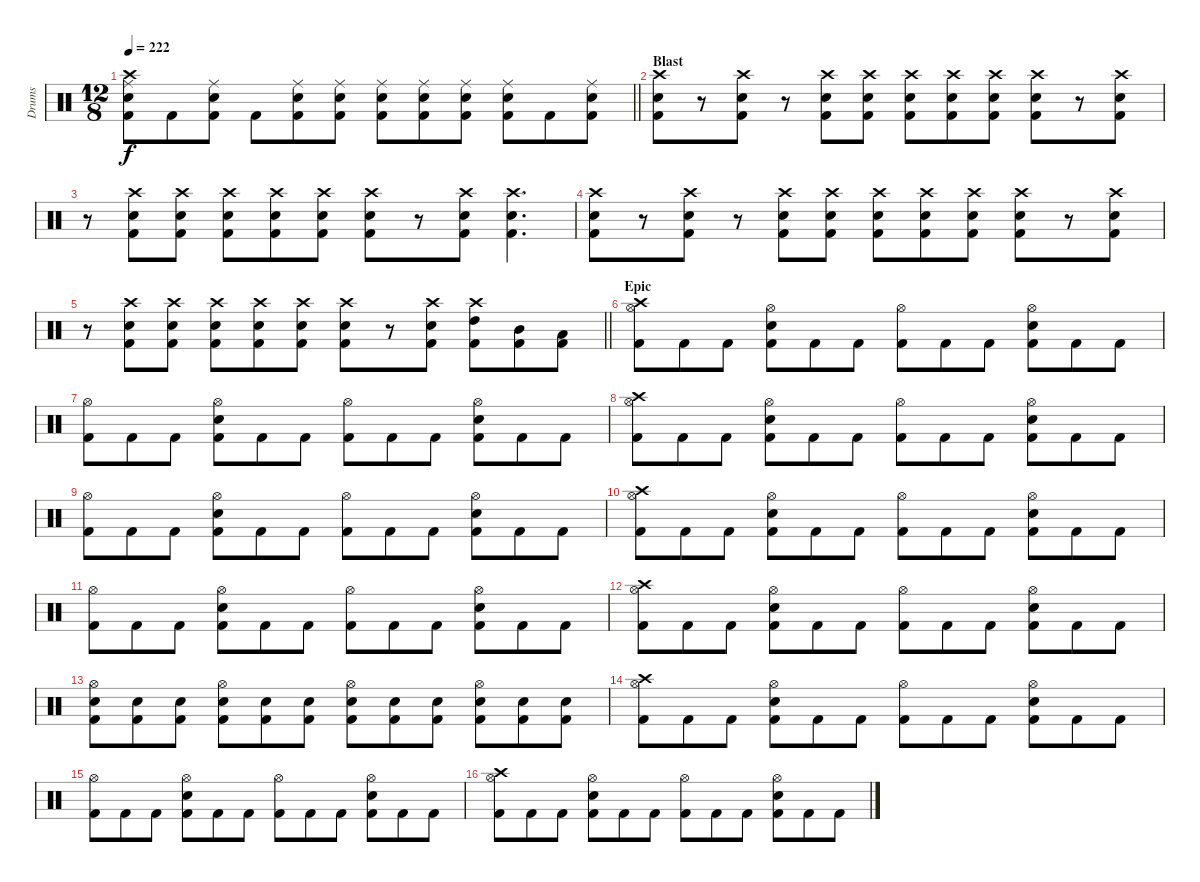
\track ("Drums" "Drums") {instrument percussion}
\staff {score}
\articulation defaults
\ts (12 8)
\tempo 222
\clef neutral
\barLineRight lightlight
\ks c
("Crash high (hit)" "Ride (middle)" "Snare (hit) 2" "Kick (hit) 2").8{dy f} "Kick (hit) 2".8 ("Ride (middle)" "Snare (hit) 2" "Kick (hit) 2").8 "Kick (hit) 2".8 ("Ride (middle)" "Snare (hit) 2" "Kick (hit) 2").8 ("Ride (middle)" "Snare (hit) 2" "Kick (hit) 2").8 ("Ride (middle)" "Snare (hit) 2" "Kick (hit) 2").8 ("Ride (middle)" "Snare (hit) 2" "Kick (hit) 2").8 ("Ride (middle)" "Snare (hit) 2" "Kick (hit) 2").8 ("Ride (middle)" "Snare (hit) 2" "Kick (hit) 2").8 "Kick (hit) 2".8 ("Ride (middle)" "Snare (hit) 2" "Kick (hit) 2").8 |
\section ("" "Blast")
("Crash high (hit)" "Snare (hit) 2" "Kick (hit) 2").8 r.8 ("Crash high (hit)" "Snare (hit) 2" "Kick (hit) 2").8 r.8 ("Crash high (hit)" "Snare (hit) 2" "Kick (hit) 2").8 ("Crash high (hit)" "Snare (hit) 2" "Kick (hit) 2").8 ("Crash high (hit)" "Snare (hit) 2" "Kick (hit) 2").8 ("Crash high (hit)" "Snare (hit) 2" "Kick (hit) 2").8 ("Crash high (hit)" "Snare (hit) 2" "Kick (hit) 2").8 ("Crash high (hit)" "Snare (hit) 2" "Kick (hit) 2").8 r.8 ("Crash high (hit)" "Snare (hit) 2" "Kick (hit) 2").8 |
r.8 ("Crash high (hit)" "Snare (hit) 2" "Kick (hit) 2").8 ("Crash high (hit)" "Snare (hit) 2" "Kick (hit) 2").8 ("Crash high (hit)" "Snare (hit) 2" "Kick (hit) 2").8 ("Crash high (hit)" "Snare (hit) 2" "Kick (hit) 2").8 ("Crash high (hit)" "Snare (hit) 2" "Kick (hit) 2").8 ("Crash high (hit)" "Snare (hit) 2" "Kick (hit) 2").8 r.8 ("Crash high (hit)" "Snare (hit) 2" "Kick (hit) 2").8 ("Crash high (hit)" "Snare (hit) 2" "Kick (hit) 2").4{d} |
("Crash high (hit)" "Snare (hit) 2" "Kick (hit) 2").8 r.8 ("Crash high (hit)" "Snare (hit) 2" "Kick (hit) 2").8 r.8 ("Crash high (hit)" "Snare (hit) 2" "Kick (hit) 2").8 ("Crash high (hit)" "Snare (hit) 2" "Kick (hit) 2").8 ("Crash high (hit)" "Snare (hit) 2" "Kick (hit) 2").8 ("Crash high (hit)" "Snare (hit) 2" "Kick (hit) 2").8 ("Crash high (hit)" "Snare (hit) 2" "Kick (hit) 2").8 ("Crash high (hit)" "Snare (hit) 2" "Kick (hit) 2").8 r.8 ("Crash high (hit)" "Snare (hit) 2" "Kick (hit) 2").8 |
\barLineRight lightlight
r.8 ("Crash high (hit)" "Snare (hit) 2" "Kick (hit) 2").8 ("Crash high (hit)" "Snare (hit) 2" "Kick (hit) 2").8 ("Crash high (hit)" "Snare (hit) 2" "Kick (hit) 2").8 ("Crash high (hit)" "Snare (hit) 2" "Kick (hit) 2").8 ("Crash high (hit)" "Snare (hit) 2" "Kick (hit) 2").8 ("Crash high (hit)" "Snare (hit) 2" "Kick (hit) 2").8 r.8 ("Crash high (hit)" "Snare (hit) 2" "Kick (hit) 2").8 ("Crash high (hit)" "High Tom (hit)" "Kick (hit) 2").8 ("Mid Tom (hit)" "Kick (hit) 2").8 ("Low Tom (hit)" "Kick (hit) 2").8 |
\section ("" "Epic")
("Crash high (hit)" "Hi-Hat (open)" "Kick (hit) 2").8 "Kick (hit) 2".8 "Kick (hit) 2".8 ("Hi-Hat (open)" "Snare (hit) 2" "Kick (hit) 2").8 "Kick (hit) 2".8 "Kick (hit) 2".8 ("Hi-Hat (open)" "Kick (hit) 2").8 "Kick (hit) 2".8 "Kick (hit) 2".8 ("Hi-Hat (open)" "Snare (hit) 2" "Kick (hit) 2").8 "Kick (hit) 2".8 "Kick (hit) 2".8 |
("Hi-Hat (open)" "Kick (hit) 2").8 "Kick (hit) 2".8 "Kick (hit) 2".8 ("Hi-Hat (open)" "Snare (hit) 2" "Kick (hit) 2").8 "Kick (hit) 2".8 "Kick (hit) 2".8 ("Hi-Hat (open)" "Kick (hit) 2").8 "Kick (hit) 2".8 "Kick (hit) 2".8 ("Hi-Hat (open)" "Snare (hit) 2" "Kick (hit) 2").8 "Kick (hit) 2".8 "Kick (hit) 2".8 |
("Crash high (hit)" "Hi-Hat (open)" "Kick (hit) 2").8 "Kick (hit) 2".8 "Kick (hit) 2".8 ("Hi-Hat (open)" "Snare (hit) 2" "Kick (hit) 2").8 "Kick (hit) 2".8 "Kick (hit) 2".8 ("Hi-Hat (open)" "Kick (hit) 2").8 "Kick (hit) 2".8 "Kick (hit) 2".8 ("Hi-Hat (open)" "Snare (hit) 2" "Kick (hit) 2").8 "Kick (hit) 2".8 "Kick (hit) 2".8 |
("Hi-Hat (open)" "Kick (hit) 2").8 "Kick (hit) 2".8 "Kick (hit) 2".8 ("Hi-Hat (open)" "Snare (hit) 2" "Kick (hit) 2").8 "Kick (hit) 2".8 "Kick (hit) 2".8 ("Hi-Hat (open)" "Kick (hit) 2").8 "Kick (hit) 2".8 "Kick (hit) 2".8 ("Hi-Hat (open)" "Snare (hit) 2" "Kick (hit) 2").8 "Kick (hit) 2".8 "Kick (hit) 2".8 |
("Crash high (hit)" "Hi-Hat (open)" "Kick (hit) 2").8 "Kick (hit) 2".8 "Kick (hit) 2".8 ("Hi-Hat (open)" "Snare (hit) 2" "Kick (hit) 2").8 "Kick (hit) 2".8 "Kick (hit) 2".8 ("Hi-Hat (open)" "Kick (hit) 2").8 "Kick (hit) 2".8 "Kick (hit) 2".8 ("Hi-Hat (open)" "Snare (hit) 2" "Kick (hit) 2").8 "Kick (hit) 2".8 "Kick (hit) 2".8 |
("Hi-Hat (open)" "Kick (hit) 2").8 "Kick (hit) 2".8 "Kick (hit) 2".8 ("Hi-Hat (open)" "Snare (hit) 2" "Kick (hit) 2").8 "Kick (hit) 2".8 "Kick (hit) 2".8 ("Hi-Hat (open)" "Kick (hit) 2").8 "Kick (hit) 2".8 "Kick (hit) 2".8 ("Hi-Hat (open)" "Snare (hit) 2" "Kick (hit) 2").8 "Kick (hit) 2".8 "Kick (hit) 2".8 |
("Crash high (hit)" "Hi-Hat (open)" "Kick (hit) 2").8 "Kick (hit) 2".8 "Kick (hit) 2".8 ("Hi-Hat (open)" "Snare (hit) 2" "Kick (hit) 2").8 "Kick (hit) 2".8 "Kick (hit) 2".8 ("Hi-Hat (open)" "Kick (hit) 2").8 "Kick (hit) 2".8 "Kick (hit) 2".8 ("Hi-Hat (open)" "Snare (hit) 2" "Kick (hit) 2").8 "Kick (hit) 2".8 "Kick (hit) 2".8 |
("Hi-Hat (open)" "Snare (hit) 2" "Kick (hit) 2").8 ("Snare (hit) 2" "Kick (hit) 2").8 ("Snare (hit) 2" "Kick (hit) 2").8 ("Hi-Hat (open)" "Snare (hit) 2" "Kick (hit) 2").8 ("Snare (hit) 2" "Kick (hit) 2").8 ("Snare (hit) 2" "Kick (hit) 2").8 ("Hi-Hat (open)" "Snare (hit) 2" "Kick (hit) 2").8 ("Snare (hit) 2" "Kick (hit) 2").8 ("Snare (hit) 2" "Kick (hit) 2").8 ("Hi-Hat (open)" "Snare (hit) 2" "Kick (hit) 2").8 ("Snare (hit) 2" "Kick (hit) 2").8 ("Snare (hit) 2" "Kick (hit) 2").8 |
("Crash high (hit)" "Hi-Hat (open)" "Kick (hit) 2").8 "Kick (hit) 2".8 "Kick (hit) 2".8 ("Hi-Hat (open)" "Snare (hit) 2" "Kick (hit) 2").8 "Kick (hit) 2".8 "Kick (hit) 2".8 ("Hi-Hat (open)" "Kick (hit) 2").8 "Kick (hit) 2".8 "Kick (hit) 2".8 ("Hi-Hat (open)" "Snare (hit) 2" "Kick (hit) 2").8 "Kick (hit) 2".8 "Kick (hit) 2".8 |
("Hi-Hat (open)" "Kick (hit) 2").8 "Kick (hit) 2".8 "Kick (hit) 2".8 ("Hi-Hat (open)" "Snare (hit) 2" "Kick (hit) 2").8 "Kick (hit) 2".8 "Kick (hit) 2".8 ("Hi-Hat (open)" "Kick (hit) 2").8 "Kick (hit) 2".8 "Kick (hit) 2".8 ("Hi-Hat (open)" "Snare (hit) 2" "Kick (hit) 2").8 "Kick (hit) 2".8 "Kick (hit) 2".8 |
("Crash high (hit)" "Hi-Hat (open)" "Kick (hit) 2").8 "Kick (hit) 2".8 "Kick (hit) 2".8 ("Hi-Hat (open)" "Snare (hit) 2" "Kick (hit) 2").8 "Kick (hit) 2".8 "Kick (hit) 2".8 ("Hi-Hat (open)" "Kick (hit) 2").8 "Kick (hit) 2".8 "Kick (hit) 2".8 ("Hi-Hat (open)" "Snare (hit) 2" "Kick (hit) 2").8 "Kick (hit) 2".8 "Kick (hit) 2".8
